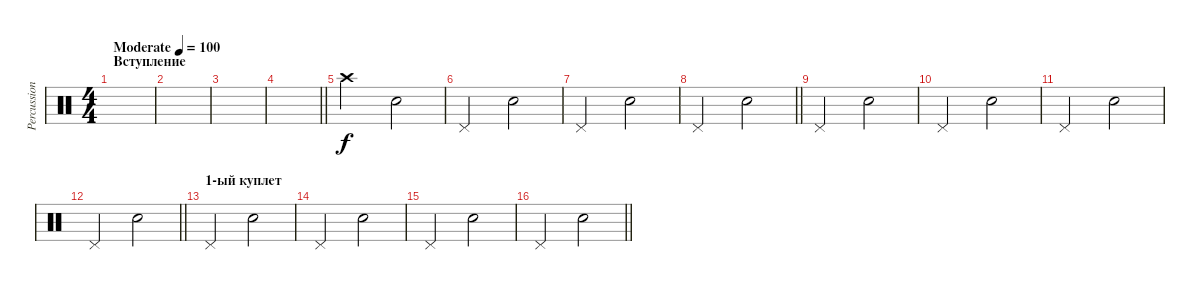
\track ("Percussioni" "Percussion") {instrument percussion}
\staff {score}
\articulation defaults
\ts (4 4)
\section ("" "Вступление")
\tempo (100 "Moderate")
\clef neutral
\ks c
|
|
|
\barLineRight lightlight
|
"Crash high (hit)".2 "Snare (hit) 2".2 |
"Pedal Hi-Hat (hit)".2 "Snare (hit) 2".2 |
"Pedal Hi-Hat (hit)".2 "Snare (hit) 2".2 |
\barLineRight lightlight "Pedal Hi-Hat (hit)".2 "Snare (hit) 2".2
|
"Pedal Hi-Hat (hit)".2 "Snare (hit) 2".2 |
"Pedal Hi-Hat (hit)".2 "Snare (hit) 2".2 |
"Pedal Hi-Hat (hit)".2 "Snare (hit) 2".2 |
\barLineRight lightlight "Pedal Hi-Hat (hit)".2 "Snare (hit) 2".2
|
\section ("" "1-ый куплет")
"Pedal Hi-Hat (hit)".2 "Snare (hit) 2".2 |
"Pedal Hi-Hat (hit)".2 "Snare (hit) 2".2 |
"Pedal Hi-Hat (hit)".2 "Snare (hit) 2".2 |
\barLineRight lightlight "Pedal Hi-Hat (hit)".2 "Snare (hit) 2".2
